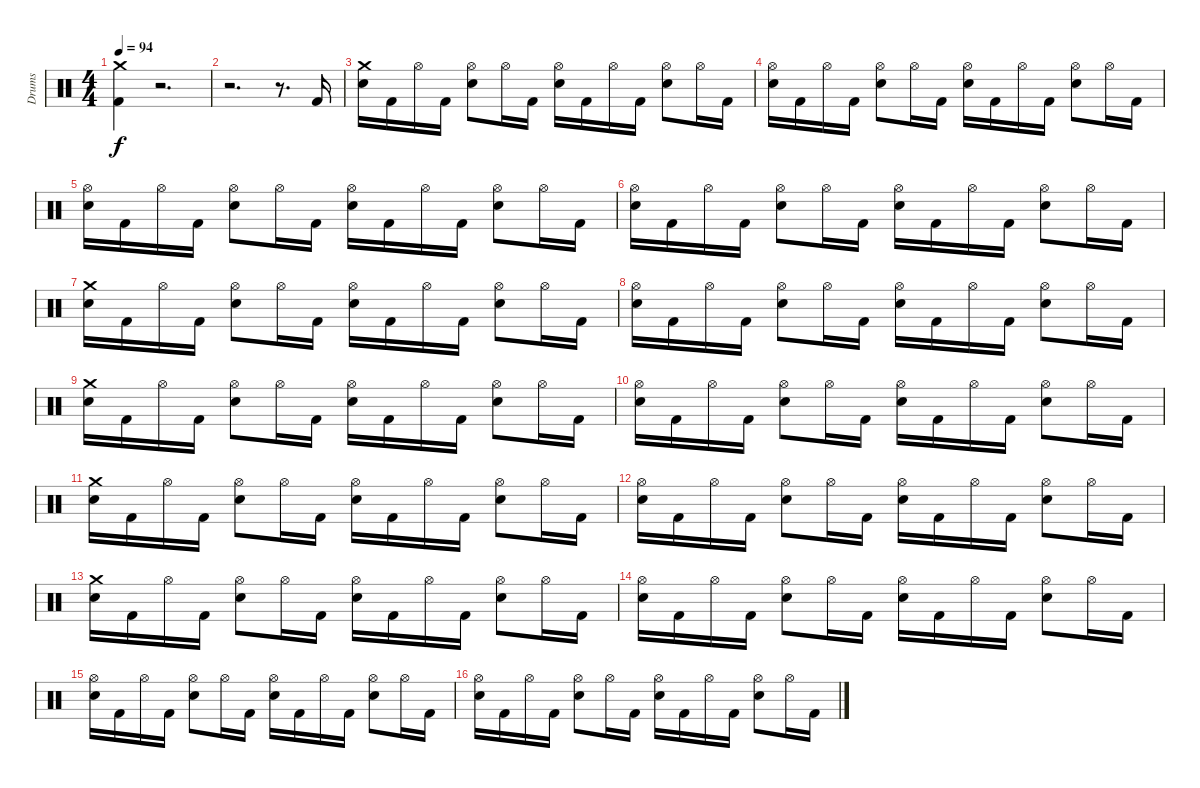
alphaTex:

\track ("Drums" "Drums") {instrument percussion}
\staff {score}
\articulation defaults
\ts (4 4)
\tempo 94
\clef neutral
\ks c
("Crash medium (hit)" "Kick (hit) 2").4{dy f} r.2{d} |
r.2{d} r.8{d} "Kick (hit) 2".16 |
("Electric Snare (hit)" "Crash medium (hit)").16 "Kick (hit) 2".16 "Hi-Hat (open)".16 "Kick (hit) 2".16 ("Electric Snare (hit)" "Hi-Hat (open)").8 "Hi-Hat (open)".16 "Kick (hit) 2".16 ("Electric Snare (hit)" "Hi-Hat (open)").16 "Kick (hit) 2".16 "Hi-Hat (open)".16 "Kick (hit) 2".16 ("Electric Snare (hit)" "Hi-Hat (open)").8 "Hi-Hat (open)".16 "Kick (hit) 2".16 |
("Electric Snare (hit)" "Hi-Hat (open)").16 "Kick (hit) 2".16 "Hi-Hat (open)".16 "Kick (hit) 2".16 ("Electric Snare (hit)" "Hi-Hat (open)").8 "Hi-Hat (open)".16 "Kick (hit) 2".16 ("Electric Snare (hit)" "Hi-Hat (open)").16 "Kick (hit) 2".16 "Hi-Hat (open)".16 "Kick (hit) 2".16 ("Electric Snare (hit)" "Hi-Hat (open)").8 "Hi-Hat (open)".16 "Kick (hit) 2".16 |
("Electric Snare (hit)" "Hi-Hat (open)").16 "Kick (hit) 2".16 "Hi-Hat (open)".16 "Kick (hit) 2".16 ("Electric Snare (hit)" "Hi-Hat (open)").8 "Hi-Hat (open)".16 "Kick (hit) 2".16 ("Electric Snare (hit)" "Hi-Hat (open)").16 "Kick (hit) 2".16 "Hi-Hat (open)".16 "Kick (hit) 2".16 ("Electric Snare (hit)" "Hi-Hat (open)").8 "Hi-Hat (open)".16 "Kick (hit) 2".16 |
("Electric Snare (hit)" "Hi-Hat (open)").16 "Kick (hit) 2".16 "Hi-Hat (open)".16 "Kick (hit) 2".16 ("Electric Snare (hit)" "Hi-Hat (open)").8 "Hi-Hat (open)".16 "Kick (hit) 2".16 ("Electric Snare (hit)" "Hi-Hat (open)").16 "Kick (hit) 2".16 "Hi-Hat (open)".16 "Kick (hit) 2".16 ("Electric Snare (hit)" "Hi-Hat (open)").8 "Hi-Hat (open)".16 "Kick (hit) 2".16 |
("Electric Snare (hit)" "Crash medium (hit)").16 "Kick (hit) 2".16 "Hi-Hat (open)".16 "Kick (hit) 2".16 ("Electric Snare (hit)" "Hi-Hat (open)").8 "Hi-Hat (open)".16 "Kick (hit) 2".16 ("Electric Snare (hit)" "Hi-Hat (open)").16 "Kick (hit) 2".16 "Hi-Hat (open)".16 "Kick (hit) 2".16 ("Electric Snare (hit)" "Hi-Hat (open)").8 "Hi-Hat (open)".16 "Kick (hit) 2".16 |
("Electric Snare (hit)" "Hi-Hat (open)").16 "Kick (hit) 2".16 "Hi-Hat (open)".16 "Kick (hit) 2".16 ("Electric Snare (hit)" "Hi-Hat (open)").8 "Hi-Hat (open)".16 "Kick (hit) 2".16 ("Electric Snare (hit)" "Hi-Hat (open)").16 "Kick (hit) 2".16 "Hi-Hat (open)".16 "Kick (hit) 2".16 ("Electric Snare (hit)" "Hi-Hat (open)").8 "Hi-Hat (open)".16 "Kick (hit) 2".16 |
("Electric Snare (hit)" "Crash medium (hit)").16 "Kick (hit) 2".16 "Hi-Hat (open)".16 "Kick (hit) 2".16 ("Hi-Hat (open)" "Electric Snare (hit)").8 "Hi-Hat (open)".16 "Kick (hit) 2".16 ("Hi-Hat (open)" "Electric Snare (hit)").16 "Kick (hit) 2".16 "Hi-Hat (open)".16 "Kick (hit) 2".16 ("Hi-Hat (open)" "Electric Snare (hit)").8 "Hi-Hat (open)".16 "Kick (hit) 2".16 |
("Hi-Hat (open)" "Electric Snare (hit)").16 "Kick (hit) 2".16 "Hi-Hat (open)".16 "Kick (hit) 2".16 ("Hi-Hat (open)" "Electric Snare (hit)").8 "Hi-Hat (open)".16 "Kick (hit) 2".16 ("Hi-Hat (open)" "Electric Snare (hit)").16 "Kick (hit) 2".16 "Hi-Hat (open)".16 "Kick (hit) 2".16 ("Hi-Hat (open)" "Electric Snare (hit)").8 "Hi-Hat (open)".16 "Kick (hit) 2".16 |
("Electric Snare (hit)" "Crash medium (hit)").16 "Kick (hit) 2".16 "Hi-Hat (open)".16 "Kick (hit) 2".16 ("Hi-Hat (open)" "Electric Snare (hit)").8 "Hi-Hat (open)".16 "Kick (hit) 2".16 ("Hi-Hat (open)" "Electric Snare (hit)").16 "Kick (hit) 2".16 "Hi-Hat (open)".16 "Kick (hit) 2".16 ("Hi-Hat (open)" "Electric Snare (hit)").8 "Hi-Hat (open)".16 "Kick (hit) 2".16 |
("Hi-Hat (open)" "Electric Snare (hit)").16 "Kick (hit) 2".16 "Hi-Hat (open)".16 "Kick (hit) 2".16 ("Hi-Hat (open)" "Electric Snare (hit)").8 "Hi-Hat (open)".16 "Kick (hit) 2".16 ("Hi-Hat (open)" "Electric Snare (hit)").16 "Kick (hit) 2".16 "Hi-Hat (open)".16 "Kick (hit) 2".16 ("Hi-Hat (open)" "Electric Snare (hit)").8 "Hi-Hat (open)".16 "Kick (hit) 2".16 |
("Electric Snare (hit)" "Crash medium (hit)").16 "Kick (hit) 2".16 "Hi-Hat (open)".16 "Kick (hit) 2".16 ("Hi-Hat (open)" "Electric Snare (hit)").8 "Hi-Hat (open)".16 "Kick (hit) 2".16 ("Hi-Hat (open)" "Electric Snare (hit)").16 "Kick (hit) 2".16 "Hi-Hat (open)".16 "Kick (hit) 2".16 ("Hi-Hat (open)" "Electric Snare (hit)").8 "Hi-Hat (open)".16 "Kick (hit) 2".16 |
("Hi-Hat (open)" "Electric Snare (hit)").16 "Kick (hit) 2".16 "Hi-Hat (open)".16 "Kick (hit) 2".16 ("Hi-Hat (open)" "Electric Snare (hit)").8 "Hi-Hat (open)".16 "Kick (hit) 2".16 ("Hi-Hat (open)" "Electric Snare (hit)").16 "Kick (hit) 2".16 "Hi-Hat (open)".16 "Kick (hit) 2".16 ("Hi-Hat (open)" "Electric Snare (hit)").8 "Hi-Hat (open)".16 "Kick (hit) 2".16 |
("Electric Snare (hit)" "Hi-Hat (open)").16 "Kick (hit) 2".16 "Hi-Hat (open)".16 "Kick (hit) 2".16 ("Electric Snare (hit)" "Hi-Hat (open)").8 "Hi-Hat (open)".16 "Kick (hit) 2".16 ("Electric Snare (hit)" "Hi-Hat (open)").16 "Kick (hit) 2".16 "Hi-Hat (open)".16 "Kick (hit) 2".16 ("Electric Snare (hit)" "Hi-Hat (open)").8 "Hi-Hat (open)".16 "Kick (hit) 2".16 |
("Electric Snare (hit)" "Hi-Hat (open)").16 "Kick (hit) 2".16 "Hi-Hat (open)".16 "Kick (hit) 2".16 ("Electric Snare (hit)" "Hi-Hat (open)").8 "Hi-Hat (open)".16 "Kick (hit) 2".16 ("Electric Snare (hit)" "Hi-Hat (open)").16 "Kick (hit) 2".16 "Hi-Hat (open)".16 "Kick (hit) 2".16 ("Electric Snare (hit)" "Hi-Hat (open)").8 "Hi-Hat (open)".16 "Kick (hit) 2".16
